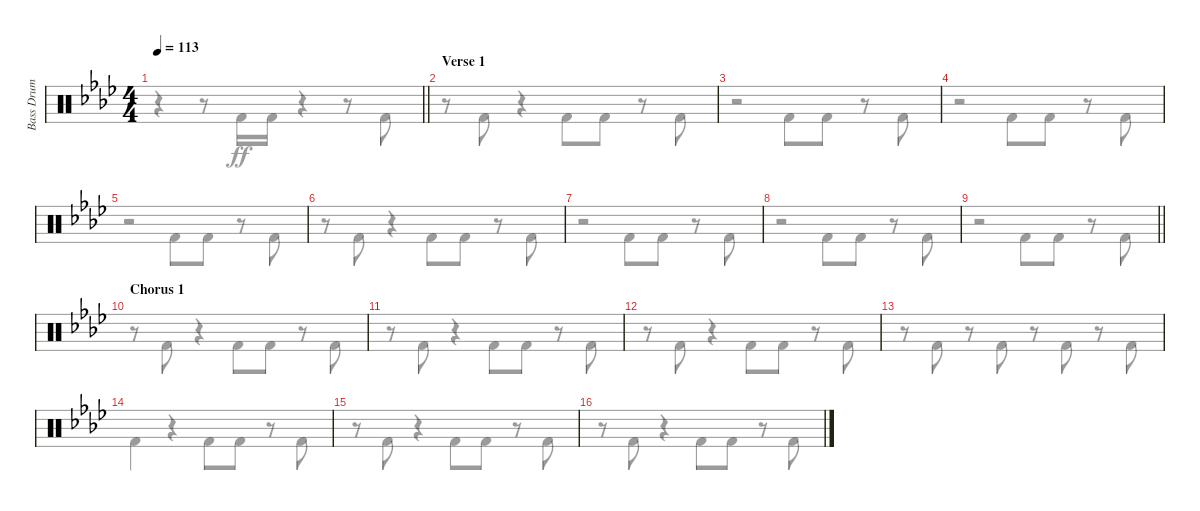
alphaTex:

\track ("Bass Drum" "Bass Drum") {instrument percussion}
\staff {score}
\articulation defaults
\voice
\ts (4 4)
\tempo 113
\clef neutral
\barLineRight lightlight
\ks fminor
|
\section ("" "Verse 1")
|
|
|
|
|
|
|
\barLineRight lightlight
|
\section ("" "Chorus 1")
|
|
|
|
|
|
\voice
\clef neutral
\barLineRight lightlight
\ks fminor
r.4{dy ff} r.8 "Kick (hit) 2".16 "Kick (hit) 2".16 r.4 r.8 "Kick (hit) 2".8 |
r.8 "Kick (hit) 2".8 r.4 "Kick (hit) 2".8 "Kick (hit) 2".8 r.8 "Kick (hit) 2".8 |
r.2 "Kick (hit) 2".8 "Kick (hit) 2".8 r.8 "Kick (hit) 2".8 |
r.2 "Kick (hit) 2".8 "Kick (hit) 2".8 r.8 "Kick (hit) 2".8 |
r.2 "Kick (hit) 2".8 "Kick (hit) 2".8 r.8 "Kick (hit) 2".8 |
r.8 "Kick (hit) 2".8 r.4 "Kick (hit) 2".8 "Kick (hit) 2".8 r.8 "Kick (hit) 2".8 |
r.2 "Kick (hit) 2".8 "Kick (hit) 2".8 r.8 "Kick (hit) 2".8 |
r.2 "Kick (hit) 2".8 "Kick (hit) 2".8 r.8 "Kick (hit) 2".8 |
\barLineRight lightlight
r.2 "Kick (hit) 2".8 "Kick (hit) 2".8 r.8 "Kick (hit) 2".8 |
r.8 "Kick (hit) 2".8 r.4 "Kick (hit) 2".8 "Kick (hit) 2".8 r.8 "Kick (hit) 2".8 |
r.8 "Kick (hit) 2".8 r.4 "Kick (hit) 2".8 "Kick (hit) 2".8 r.8 "Kick (hit) 2".8 |
r.8 "Kick (hit) 2".8 r.4 "Kick (hit) 2".8 "Kick (hit) 2".8 r.8 "Kick (hit) 2".8 |
r.8 "Kick (hit) 2".8 r.8 "Kick (hit) 2".8 r.8 "Kick (hit) 2".8 r.8 "Kick (hit) 2".8 |
"Kick (hit) 2".4 r.4 "Kick (hit) 2".8 "Kick (hit) 2".8 r.8 "Kick (hit) 2".8 |
r.8 "Kick (hit) 2".8 r.4 "Kick (hit) 2".8 "Kick (hit) 2".8 r.8 "Kick (hit) 2".8 |
r.8 "Kick (hit) 2".8 r.4 "Kick (hit) 2".8 "Kick (hit) 2".8 r.8 "Kick (hit) 2".8
